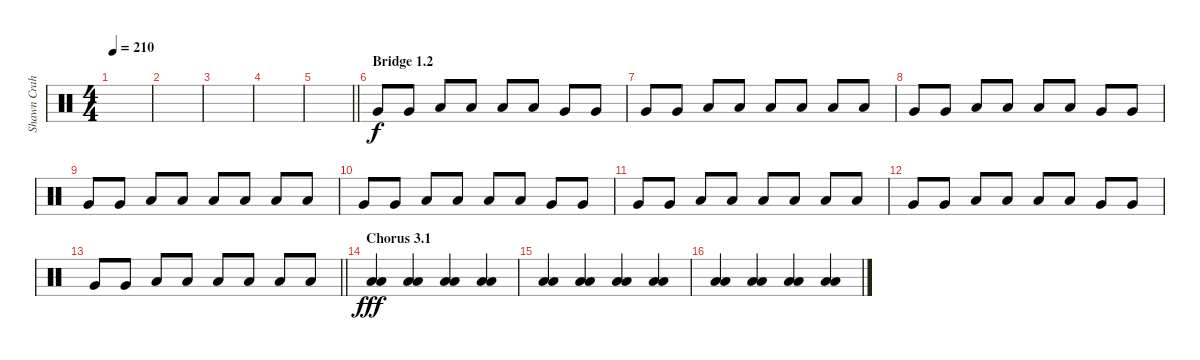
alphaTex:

\track ("Shawn Crahan" "Shawn Crah") {instrument percussion}
\staff {score}
\articulation defaults
\ts (4 4)
\tempo 210
\clef neutral
\ks c
|
|
|
|
\barLineRight lightlight
|
\section ("" "Bridge 1.2")
"Very Low Tom (hit)".8{dy f} "Very Low Tom (hit)".8 "Low Floor Tom (hit)".8 "Low Floor Tom (hit)".8 "Low Tom (hit)".8 "Low Tom (hit)".8 "Very Low Tom (hit)".8 "Very Low Tom (hit)".8 |
"Very Low Tom (hit)".8 "Very Low Tom (hit)".8 "Low Floor Tom (hit)".8 "Low Floor Tom (hit)".8 "Low Floor Tom (hit)".8 "Low Floor Tom (hit)".8 "Low Floor Tom (hit)".8 "Low Floor Tom (hit)".8 |
"Very Low Tom (hit)".8 "Very Low Tom (hit)".8 "Low Floor Tom (hit)".8 "Low Floor Tom (hit)".8 "Low Tom (hit)".8 "Low Tom (hit)".8 "Very Low Tom (hit)".8 "Very Low Tom (hit)".8 |
"Very Low Tom (hit)".8 "Very Low Tom (hit)".8 "Low Floor Tom (hit)".8 "Low Floor Tom (hit)".8 "Low Floor Tom (hit)".8 "Low Floor Tom (hit)".8 "Low Floor Tom (hit)".8 "Low Floor Tom (hit)".8 |
"Very Low Tom (hit)".8 "Very Low Tom (hit)".8 "Low Floor Tom (hit)".8 "Low Floor Tom (hit)".8 "Low Tom (hit)".8 "Low Tom (hit)".8 "Very Low Tom (hit)".8 "Very Low Tom (hit)".8 |
"Very Low Tom (hit)".8 "Very Low Tom (hit)".8 "Low Floor Tom (hit)".8 "Low Floor Tom (hit)".8 "Low Floor Tom (hit)".8 "Low Floor Tom (hit)".8 "Low Floor Tom (hit)".8 "Low Floor Tom (hit)".8 |
"Very Low Tom (hit)".8 "Very Low Tom (hit)".8 "Low Floor Tom (hit)".8 "Low Floor Tom (hit)".8 "Low Tom (hit)".8 "Low Tom (hit)".8 "Very Low Tom (hit)".8 "Very Low Tom (hit)".8 |
\barLineRight lightlight "Very Low Tom (hit)".8 "Very Low Tom (hit)".8 "Low Floor Tom (hit)".8 "Low Floor Tom (hit)".8 "Low Floor Tom (hit)".8 "Low Floor Tom (hit)".8 "Low Floor Tom (hit)".8 "Low Floor Tom (hit)".8
|
\section ("" "Chorus 3.1")
("Low Floor Tom (hit)" "Low Floor Tom (hit)").4{dy fff} ("Low Floor Tom (hit)" "Low Floor Tom (hit)").4 ("Low Floor Tom (hit)" "Low Floor Tom (hit)").4 ("Low Floor Tom (hit)" "Low Floor Tom (hit)").4 |
("Low Floor Tom (hit)" "Low Floor Tom (hit)").4 ("Low Floor Tom (hit)" "Low Floor Tom (hit)").4 ("Low Floor Tom (hit)" "Low Floor Tom (hit)").4 ("Low Floor Tom (hit)" "Low Floor Tom (hit)").4 |
("Low Floor Tom (hit)" "Low Floor Tom (hit)").4 ("Low Floor Tom (hit)" "Low Floor Tom (hit)").4 ("Low Floor Tom (hit)" "Low Floor Tom (hit)").4 ("Low Floor Tom (hit)" "Low Floor Tom (hit)").4
